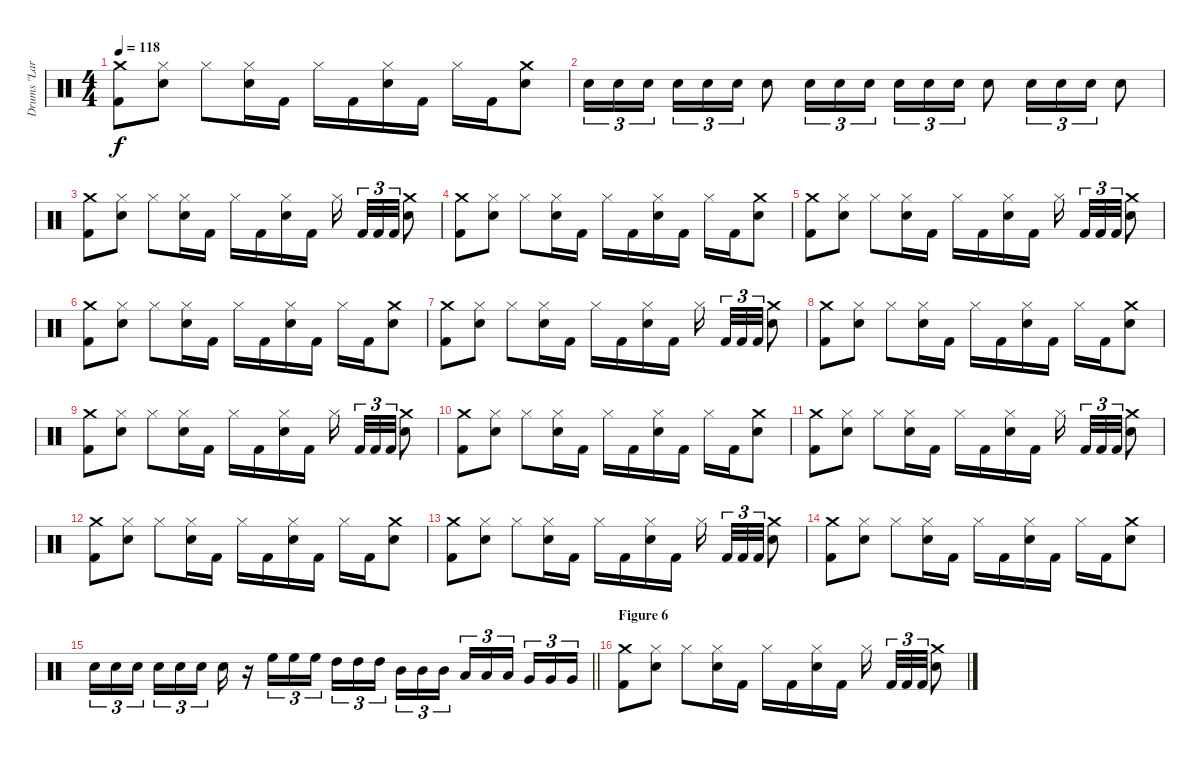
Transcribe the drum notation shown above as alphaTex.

\track ("Drums \"Lars Ulrich\"" "Drums \"Lar") {instrument percussion}
\staff {score}
\articulation defaults
\ts (4 4)
\tempo 118
\clef neutral
\ks c
("Crash medium (hit)" "Kick (hit) 2").8{dy f} ("Hi-Hat (closed)" "Electric Snare (hit)").8 "Hi-Hat (closed)".8 ("Hi-Hat (closed)" "Electric Snare (hit)").16 "Kick (hit) 2".16 "Hi-Hat (closed)".16 "Kick (hit) 2".16 ("Hi-Hat (closed)" "Electric Snare (hit)").16 "Kick (hit) 2".16 "Hi-Hat (closed)".16 "Kick (hit) 2".16 ("Crash medium (hit)" "Electric Snare (hit)").8 |
"Electric Snare (hit)".16{tu (3 2)} "Electric Snare (hit)".16{tu (3 2)} "Electric Snare (hit)".16{tu (3 2) beam splitsecondary} "Electric Snare (hit)".16{tu (3 2)} "Electric Snare (hit)".16{tu (3 2)} "Electric Snare (hit)".16{tu (3 2)} "Electric Snare (hit)".8 "Electric Snare (hit)".16{tu (3 2)} "Electric Snare (hit)".16{tu (3 2)} "Electric Snare (hit)".16{tu (3 2)} "Electric Snare (hit)".16{tu (3 2)} "Electric Snare (hit)".16{tu (3 2)} "Electric Snare (hit)".16{tu (3 2)} "Electric Snare (hit)".8 "Electric Snare (hit)".16{tu (3 2)} "Electric Snare (hit)".16{tu (3 2)} "Electric Snare (hit)".16{tu (3 2)} "Electric Snare (hit)".8 |
("Crash medium (hit)" "Kick (hit) 2").8 ("Hi-Hat (closed)" "Electric Snare (hit)").8 "Hi-Hat (closed)".8 ("Hi-Hat (closed)" "Electric Snare (hit)").16 "Kick (hit) 2".16 "Hi-Hat (closed)".16 "Kick (hit) 2".16 ("Hi-Hat (closed)" "Electric Snare (hit)").16 "Kick (hit) 2".16 "Hi-Hat (closed)".16{beam splitsecondary} "Kick (hit) 2".32{tu (3 2)} "Kick (hit) 2".32{tu (3 2)} "Kick (hit) 2".32{tu (3 2)} ("Crash medium (hit)" "Electric Snare (hit)").8 |
("Crash medium (hit)" "Kick (hit) 2").8 ("Hi-Hat (closed)" "Electric Snare (hit)").8 "Hi-Hat (closed)".8 ("Hi-Hat (closed)" "Electric Snare (hit)").16 "Kick (hit) 2".16 "Hi-Hat (closed)".16 "Kick (hit) 2".16 ("Hi-Hat (closed)" "Electric Snare (hit)").16 "Kick (hit) 2".16 "Hi-Hat (closed)".16 "Kick (hit) 2".16 ("Crash medium (hit)" "Electric Snare (hit)").8 |
("Crash medium (hit)" "Kick (hit) 2").8 ("Hi-Hat (closed)" "Electric Snare (hit)").8 "Hi-Hat (closed)".8 ("Hi-Hat (closed)" "Electric Snare (hit)").16 "Kick (hit) 2".16 "Hi-Hat (closed)".16 "Kick (hit) 2".16 ("Hi-Hat (closed)" "Electric Snare (hit)").16 "Kick (hit) 2".16 "Hi-Hat (closed)".16{beam splitsecondary} "Kick (hit) 2".32{tu (3 2)} "Kick (hit) 2".32{tu (3 2)} "Kick (hit) 2".32{tu (3 2)} ("Crash medium (hit)" "Electric Snare (hit)").8 |
("Crash medium (hit)" "Kick (hit) 2").8 ("Hi-Hat (closed)" "Electric Snare (hit)").8 "Hi-Hat (closed)".8 ("Hi-Hat (closed)" "Electric Snare (hit)").16 "Kick (hit) 2".16 "Hi-Hat (closed)".16 "Kick (hit) 2".16 ("Hi-Hat (closed)" "Electric Snare (hit)").16 "Kick (hit) 2".16 "Hi-Hat (closed)".16 "Kick (hit) 2".16 ("Crash medium (hit)" "Electric Snare (hit)").8 |
("Crash medium (hit)" "Kick (hit) 2").8 ("Hi-Hat (closed)" "Electric Snare (hit)").8 "Hi-Hat (closed)".8 ("Hi-Hat (closed)" "Electric Snare (hit)").16 "Kick (hit) 2".16 "Hi-Hat (closed)".16 "Kick (hit) 2".16 ("Hi-Hat (closed)" "Electric Snare (hit)").16 "Kick (hit) 2".16 "Hi-Hat (closed)".16{beam splitsecondary} "Kick (hit) 2".32{tu (3 2)} "Kick (hit) 2".32{tu (3 2)} "Kick (hit) 2".32{tu (3 2)} ("Crash medium (hit)" "Electric Snare (hit)").8 |
("Crash medium (hit)" "Kick (hit) 2").8 ("Hi-Hat (closed)" "Electric Snare (hit)").8 "Hi-Hat (closed)".8 ("Hi-Hat (closed)" "Electric Snare (hit)").16 "Kick (hit) 2".16 "Hi-Hat (closed)".16 "Kick (hit) 2".16 ("Hi-Hat (closed)" "Electric Snare (hit)").16 "Kick (hit) 2".16 "Hi-Hat (closed)".16 "Kick (hit) 2".16 ("Crash medium (hit)" "Electric Snare (hit)").8 |
("Crash medium (hit)" "Kick (hit) 2").8 ("Hi-Hat (closed)" "Electric Snare (hit)").8 "Hi-Hat (closed)".8 ("Hi-Hat (closed)" "Electric Snare (hit)").16 "Kick (hit) 2".16 "Hi-Hat (closed)".16 "Kick (hit) 2".16 ("Hi-Hat (closed)" "Electric Snare (hit)").16 "Kick (hit) 2".16 "Hi-Hat (closed)".16{beam splitsecondary} "Kick (hit) 2".32{tu (3 2)} "Kick (hit) 2".32{tu (3 2)} "Kick (hit) 2".32{tu (3 2)} ("Crash medium (hit)" "Electric Snare (hit)").8 |
("Crash medium (hit)" "Kick (hit) 2").8 ("Hi-Hat (closed)" "Electric Snare (hit)").8 "Hi-Hat (closed)".8 ("Hi-Hat (closed)" "Electric Snare (hit)").16 "Kick (hit) 2".16 "Hi-Hat (closed)".16 "Kick (hit) 2".16 ("Hi-Hat (closed)" "Electric Snare (hit)").16 "Kick (hit) 2".16 "Hi-Hat (closed)".16 "Kick (hit) 2".16 ("Crash medium (hit)" "Electric Snare (hit)").8 |
("Crash medium (hit)" "Kick (hit) 2").8 ("Hi-Hat (closed)" "Electric Snare (hit)").8 "Hi-Hat (closed)".8 ("Hi-Hat (closed)" "Electric Snare (hit)").16 "Kick (hit) 2".16 "Hi-Hat (closed)".16 "Kick (hit) 2".16 ("Hi-Hat (closed)" "Electric Snare (hit)").16 "Kick (hit) 2".16 "Hi-Hat (closed)".16{beam splitsecondary} "Kick (hit) 2".32{tu (3 2)} "Kick (hit) 2".32{tu (3 2)} "Kick (hit) 2".32{tu (3 2)} ("Crash medium (hit)" "Electric Snare (hit)").8 |
("Crash medium (hit)" "Kick (hit) 2").8 ("Hi-Hat (closed)" "Electric Snare (hit)").8 "Hi-Hat (closed)".8 ("Hi-Hat (closed)" "Electric Snare (hit)").16 "Kick (hit) 2".16 "Hi-Hat (closed)".16 "Kick (hit) 2".16 ("Hi-Hat (closed)" "Electric Snare (hit)").16 "Kick (hit) 2".16 "Hi-Hat (closed)".16 "Kick (hit) 2".16 ("Crash medium (hit)" "Electric Snare (hit)").8 |
("Crash medium (hit)" "Kick (hit) 2").8 ("Hi-Hat (closed)" "Electric Snare (hit)").8 "Hi-Hat (closed)".8 ("Hi-Hat (closed)" "Electric Snare (hit)").16 "Kick (hit) 2".16 "Hi-Hat (closed)".16 "Kick (hit) 2".16 ("Hi-Hat (closed)" "Electric Snare (hit)").16 "Kick (hit) 2".16 "Hi-Hat (closed)".16{beam splitsecondary} "Kick (hit) 2".32{tu (3 2)} "Kick (hit) 2".32{tu (3 2)} "Kick (hit) 2".32{tu (3 2)} ("Crash medium (hit)" "Electric Snare (hit)").8 |
("Crash medium (hit)" "Kick (hit) 2").8 ("Hi-Hat (closed)" "Electric Snare (hit)").8 "Hi-Hat (closed)".8 ("Hi-Hat (closed)" "Electric Snare (hit)").16 "Kick (hit) 2".16 "Hi-Hat (closed)".16 "Kick (hit) 2".16 ("Hi-Hat (closed)" "Electric Snare (hit)").16 "Kick (hit) 2".16 "Hi-Hat (closed)".16 "Kick (hit) 2".16 ("Crash medium (hit)" "Electric Snare (hit)").8 |
\barLineRight lightlight "Electric Snare (hit)".16{tu (3 2)} "Electric Snare (hit)".16{tu (3 2)} "Electric Snare (hit)".16{tu (3 2) beam splitsecondary} "Electric Snare (hit)".16{tu (3 2)} "Electric Snare (hit)".16{tu (3 2)} "Electric Snare (hit)".16{tu (3 2)} "Electric Snare (hit)".16
r.16 "High Floor Tom (hit)".16{tu (3 2)} "High Floor Tom (hit)".16{tu (3 2)} "High Floor Tom (hit)".16{tu (3 2)} "High Tom (hit)".16{tu (3 2)} "High Tom (hit)".16{tu (3 2)} "High Tom (hit)".16{tu (3 2) beam splitsecondary} "Mid Tom (hit)".16{tu (3 2)} "Mid Tom (hit)".16{tu (3 2)} "Mid Tom (hit)".16{tu (3 2)} "Low Tom (hit)".16{tu (3 2)} "Low Tom (hit)".16{tu (3 2)} "Low Tom (hit)".16{tu (3 2) beam splitsecondary} "Very Low Tom (hit)".16{tu (3 2)} "Very Low Tom (hit)".16{tu (3 2)} "Very Low Tom (hit)".16{tu (3 2)} |
\section ("" "Figure 6")
("Crash medium (hit)" "Kick (hit) 2").8 ("Hi-Hat (closed)" "Electric Snare (hit)").8 "Hi-Hat (closed)".8 ("Hi-Hat (closed)" "Electric Snare (hit)").16 "Kick (hit) 2".16 "Hi-Hat (closed)".16 "Kick (hit) 2".16 ("Hi-Hat (closed)" "Electric Snare (hit)").16 "Kick (hit) 2".16 "Hi-Hat (closed)".16{beam splitsecondary} "Kick (hit) 2".32{tu (3 2)} "Kick (hit) 2".32{tu (3 2)} "Kick (hit) 2".32{tu (3 2)} ("Crash medium (hit)" "Electric Snare (hit)").8
